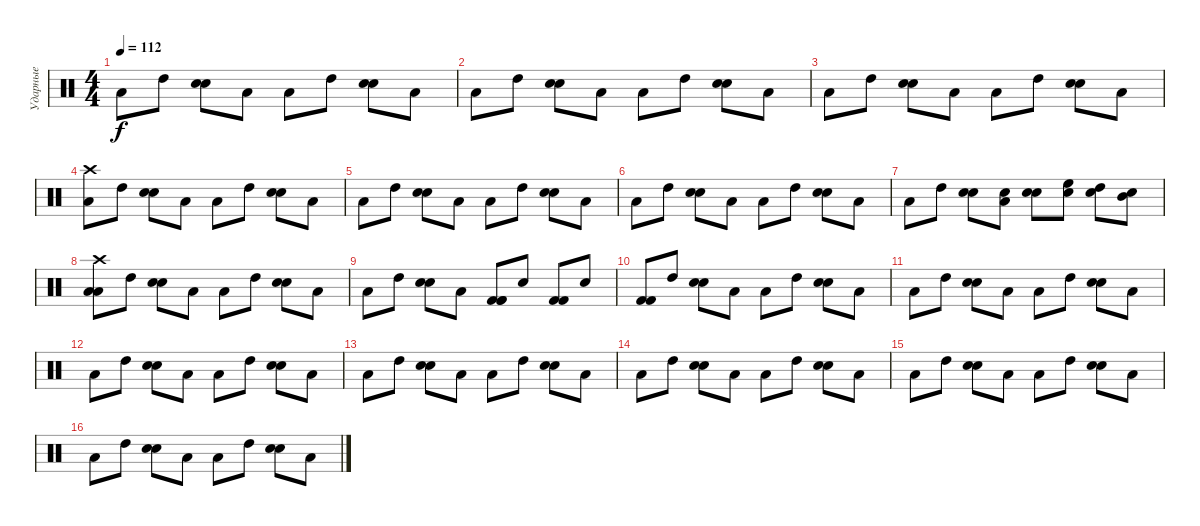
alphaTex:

\track ("Ударные" "Ударные") {instrument percussion}
\staff {score}
\articulation defaults
\ts (4 4)
\tempo 112
\clef neutral
\ks c "Low Tom (hit)".8{dy f} "High Tom (hit)".8
("Snare (hit) 2" "Snare (hit) 2").8 "Low Tom (hit)".8 "Low Tom (hit)".8 "High Tom (hit)".8 ("Snare (hit) 2" "Snare (hit) 2").8 "Low Tom (hit)".8 |
"Low Tom (hit)".8 "High Tom (hit)".8 ("Snare (hit) 2" "Snare (hit) 2").8 "Low Tom (hit)".8 "Low Tom (hit)".8 "High Tom (hit)".8 ("Snare (hit) 2" "Snare (hit) 2").8 "Low Tom (hit)".8 |
"Low Tom (hit)".8 "High Tom (hit)".8 ("Snare (hit) 2" "Snare (hit) 2").8 "Low Tom (hit)".8 "Low Tom (hit)".8 "High Tom (hit)".8 ("Snare (hit) 2" "Snare (hit) 2").8 "Low Tom (hit)".8 |
("Crash high (hit)" "Low Tom (hit)").8 "High Tom (hit)".8 ("Snare (hit) 2" "Snare (hit) 2").8 "Low Tom (hit)".8 "Low Tom (hit)".8 "High Tom (hit)".8 ("Snare (hit) 2" "Snare (hit) 2").8 "Low Tom (hit)".8 |
"Low Tom (hit)".8 "High Tom (hit)".8 ("Snare (hit) 2" "Snare (hit) 2").8 "Low Tom (hit)".8 "Low Tom (hit)".8 "High Tom (hit)".8 ("Snare (hit) 2" "Snare (hit) 2").8 "Low Tom (hit)".8 |
"Low Tom (hit)".8 "High Tom (hit)".8 ("Snare (hit) 2" "Snare (hit) 2").8 "Low Tom (hit)".8 "Low Tom (hit)".8 "High Tom (hit)".8 ("Snare (hit) 2" "Snare (hit) 2").8 "Low Tom (hit)".8 |
"Low Tom (hit)".8 "High Tom (hit)".8 ("Snare (hit) 2" "Snare (hit) 2").8 ("Snare (hit)" "Low Tom (hit)").8 ("Snare (hit)" "Snare (hit)").8 ("Snare (hit)" "High Floor Tom (hit)").8 ("Snare (hit)" "High Tom (hit)").8 ("Mid Tom (hit)" "Snare (hit)").8 |
("Crash high (hit)" "Low Tom (hit)" "Low Tom (hit)").8 "High Tom (hit)".8 ("Snare (hit) 2" "Snare (hit) 2").8 "Low Tom (hit)".8 "Low Tom (hit)".8 "High Tom (hit)".8 ("Snare (hit) 2" "Snare (hit) 2").8 "Low Tom (hit)".8 |
"Low Tom (hit)".8 "High Tom (hit)".8 ("Snare (hit) 2" "Snare (hit) 2").8 "Low Tom (hit)".8 ("Kick (hit) 2" "Kick (hit) 2" "Kick (hit) 2").8 "Snare (hit)".8 ("Kick (hit) 2" "Kick (hit) 2").8 "Snare (hit)".8 |
("Kick (hit) 2" "Kick (hit) 2").8 "High Tom (hit)".8 ("Snare (hit) 2" "Snare (hit) 2").8 "Low Tom (hit)".8 "Low Tom (hit)".8 "High Tom (hit)".8 ("Snare (hit) 2" "Snare (hit) 2").8 "Low Tom (hit)".8 |
"Low Tom (hit)".8 "High Tom (hit)".8 ("Snare (hit) 2" "Snare (hit) 2").8 "Low Tom (hit)".8 "Low Tom (hit)".8 "High Tom (hit)".8 ("Snare (hit) 2" "Snare (hit) 2").8 "Low Tom (hit)".8 |
"Low Tom (hit)".8 "High Tom (hit)".8 ("Snare (hit) 2" "Snare (hit) 2").8 "Low Tom (hit)".8 "Low Tom (hit)".8 "High Tom (hit)".8 ("Snare (hit) 2" "Snare (hit) 2").8 "Low Tom (hit)".8 |
"Low Tom (hit)".8 "High Tom (hit)".8 ("Snare (hit) 2" "Snare (hit) 2").8 "Low Tom (hit)".8 "Low Tom (hit)".8 "High Tom (hit)".8 ("Snare (hit) 2" "Snare (hit) 2").8 "Low Tom (hit)".8 |
"Low Tom (hit)".8 "High Tom (hit)".8 ("Snare (hit) 2" "Snare (hit) 2").8 "Low Tom (hit)".8 "Low Tom (hit)".8 "High Tom (hit)".8 ("Snare (hit) 2" "Snare (hit) 2").8 "Low Tom (hit)".8 |
"Low Tom (hit)".8 "High Tom (hit)".8 ("Snare (hit) 2" "Snare (hit) 2").8 "Low Tom (hit)".8 "Low Tom (hit)".8 "High Tom (hit)".8 ("Snare (hit) 2" "Snare (hit) 2").8 "Low Tom (hit)".8 |
"Low Tom (hit)".8 "High Tom (hit)".8 ("Snare (hit) 2" "Snare (hit) 2").8 "Low Tom (hit)".8 "Low Tom (hit)".8 "High Tom (hit)".8 ("Snare (hit) 2" "Snare (hit) 2").8 "Low Tom (hit)".8
